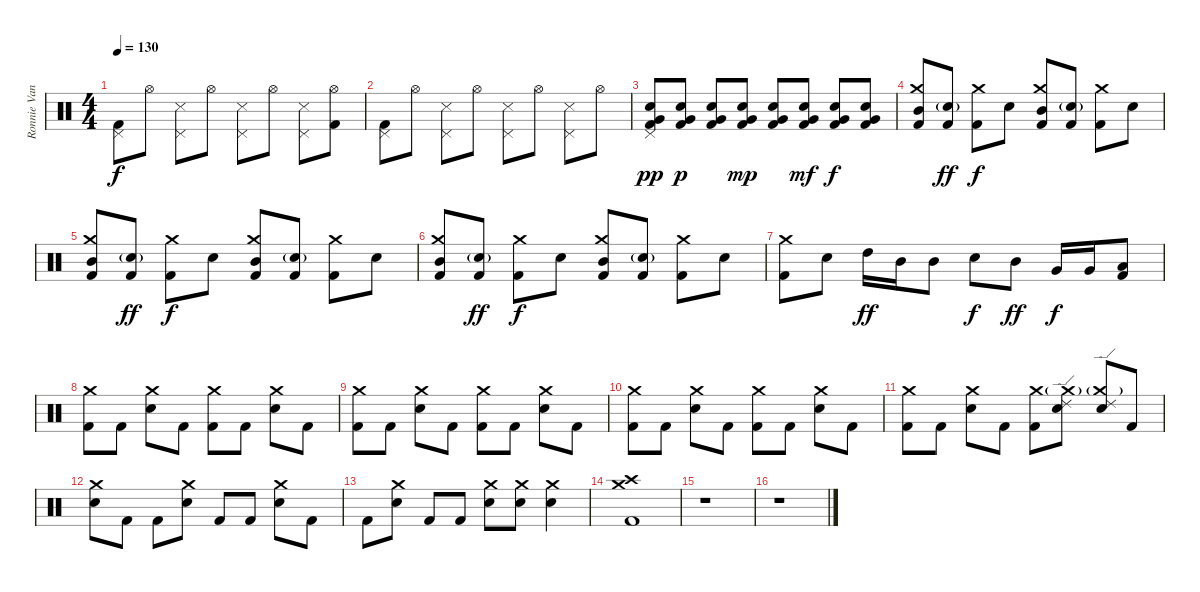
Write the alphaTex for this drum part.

\track ("Ronnie Vannucci Jr." "Ronnie Van") {instrument percussion}
\staff {score}
\articulation defaults
\ts (4 4)
\tempo 130
\clef neutral
\ks c
("Pedal Hi-Hat (hit)" "Kick (hit) 2").8{dy f} "Hi-Hat (open)".8 ("Pedal Hi-Hat (hit)" "Snare (side stick) 3").8 "Hi-Hat (open)".8 ("Pedal Hi-Hat (hit)" "Snare (side stick) 3").8 "Hi-Hat (open)".8 ("Pedal Hi-Hat (hit)" "Snare (side stick) 3").8 ("Hi-Hat (open)" "Kick (hit) 2").8 |
("Pedal Hi-Hat (hit)" "Kick (hit) 2").8 "Hi-Hat (open)".8 ("Pedal Hi-Hat (hit)" "Snare (side stick) 3").8 "Hi-Hat (open)".8 ("Pedal Hi-Hat (hit)" "Snare (side stick) 3").8 "Hi-Hat (open)".8 ("Pedal Hi-Hat (hit)" "Snare (side stick) 3").8 "Hi-Hat (open)".8 |
("Pedal Hi-Hat (hit)" "Very Low Tom (hit)" "Electric Snare (hit)" "Kick (hit) 2").8{dy pp} ("Very Low Tom (hit)" "Electric Snare (hit)" "Kick (hit) 2").8{dy p} ("Very Low Tom (hit)" "Electric Snare (hit)" "Kick (hit) 2").8 ("Very Low Tom (hit)" "Electric Snare (hit)" "Kick (hit) 2").8{dy mp} ("Very Low Tom (hit)" "Electric Snare (hit)" "Kick (hit) 2").8 ("Very Low Tom (hit)" "Electric Snare (hit)" "Kick (hit) 2").8{dy mf} ("Very Low Tom (hit)" "Electric Snare (hit)" "Kick (hit) 2").8{dy f} ("Very Low Tom (hit)" "Electric Snare (hit)" "Kick (hit) 2").8 |
("Crash medium (hit)" "Mid Tom (hit)" "Kick (hit) 2").8 ("Electric Snare (hit)"{g} "Kick (hit) 2").8{dy ff} ("Crash medium (hit)" "Kick (hit) 2").8{dy f} "Electric Snare (hit)".8 ("Crash medium (hit)" "Mid Tom (hit)" "Kick (hit) 2").8 ("Electric Snare (hit)"{g} "Kick (hit) 2").8 ("Crash medium (hit)" "Kick (hit) 2").8 "Electric Snare (hit)".8 |
("Crash medium (hit)" "Mid Tom (hit)" "Kick (hit) 2").8 ("Electric Snare (hit)"{g} "Kick (hit) 2").8{dy ff} ("Crash medium (hit)" "Kick (hit) 2").8{dy f} "Electric Snare (hit)".8 ("Crash medium (hit)" "Mid Tom (hit)" "Kick (hit) 2").8 ("Electric Snare (hit)"{g} "Kick (hit) 2").8 ("Crash medium (hit)" "Kick (hit) 2").8 "Electric Snare (hit)".8 |
("Crash medium (hit)" "Mid Tom (hit)" "Kick (hit) 2").8 ("Electric Snare (hit)"{g} "Kick (hit) 2").8{dy ff} ("Crash medium (hit)" "Kick (hit) 2").8{dy f} "Electric Snare (hit)".8 ("Crash medium (hit)" "Mid Tom (hit)" "Kick (hit) 2").8 ("Electric Snare (hit)"{g} "Kick (hit) 2").8 ("Crash medium (hit)" "Kick (hit) 2").8 "Electric Snare (hit)".8 |
("Crash medium (hit)" "Kick (hit) 2").8 "Electric Snare (hit)".8 "High Tom (hit)".16{dy ff} "Mid Tom (hit)".16 "Mid Tom (hit)".8 "Electric Snare (hit)".8{dy f} "Mid Tom (hit)".8{dy ff} "Very Low Tom (hit)".16{dy f} "Very Low Tom (hit)".16 ("Low Floor Tom (hit)" "Kick (hit) 2").8 |
("Crash medium (hit)" "Kick (hit) 2").8 "Kick (hit) 2".8 ("Crash medium (hit)" "Electric Snare (hit)").8 "Kick (hit) 2".8 ("Crash medium (hit)" "Kick (hit) 2").8 "Kick (hit) 2".8 ("Crash medium (hit)" "Electric Snare (hit)").8 "Kick (hit) 2".8 |
("Crash medium (hit)" "Kick (hit) 2").8 "Kick (hit) 2".8 ("Crash medium (hit)" "Electric Snare (hit)").8 "Kick (hit) 2".8 ("Crash medium (hit)" "Kick (hit) 2").8 "Kick (hit) 2".8 ("Crash medium (hit)" "Electric Snare (hit)").8 "Kick (hit) 2".8 |
("Crash medium (hit)" "Kick (hit) 2").8 "Kick (hit) 2".8 ("Crash medium (hit)" "Electric Snare (hit)").8 "Kick (hit) 2".8 ("Crash medium (hit)" "Kick (hit) 2").8 "Kick (hit) 2".8 ("Crash medium (hit)" "Electric Snare (hit)").8 "Kick (hit) 2".8 |
("Crash medium (hit)" "Kick (hit) 2").8 "Kick (hit) 2".8 ("Crash medium (hit)" "Electric Snare (hit)").8 "Kick (hit) 2".8 ("Crash medium (hit)" "Kick (hit) 2").8 ("Crash medium (hit)"{g} "Ride (edge) 2" "Electric Snare (hit)").8 ("Crash medium (hit)"{g} "Ride (edge) 2" "Electric Snare (hit)").8 "Kick (hit) 2".8 |
("Crash medium (hit)" "Electric Snare (hit)").8 "Kick (hit) 2".8 "Kick (hit) 2".8 ("Crash medium (hit)" "Electric Snare (hit)").8 "Kick (hit) 2".8 "Kick (hit) 2".8 ("Crash medium (hit)" "Electric Snare (hit)").8 "Kick (hit) 2".8 |
"Kick (hit) 2".8 ("Crash medium (hit)" "Electric Snare (hit)").8 "Kick (hit) 2".8 "Kick (hit) 2".8 ("Crash medium (hit)" "Electric Snare (hit)").8 ("Crash medium (hit)" "Electric Snare (hit)").8 ("Crash medium (hit)" "Electric Snare (hit)").4 |
("Crash high (hit)" "Crash medium (hit)" "Kick (hit) 2").1 |
r.1 |
r.1
